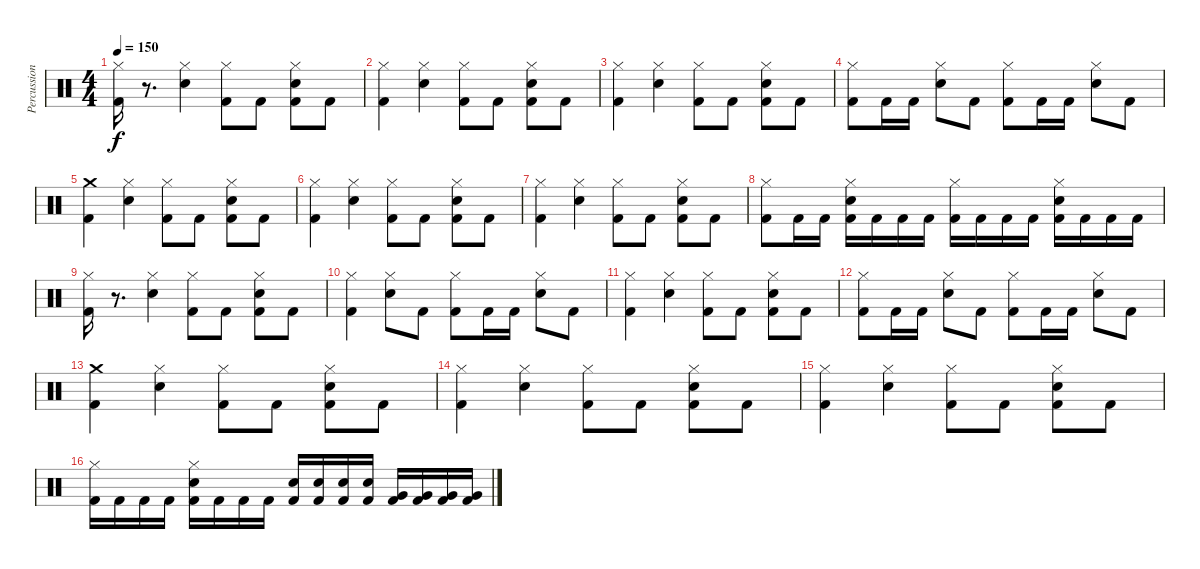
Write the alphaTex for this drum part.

\track ("Percussion" "Percussion") {instrument percussion}
\staff {score}
\articulation defaults
\ts (4 4)
\tempo 150
\clef neutral
\ks c
("Hi-Hat (closed)" "Kick (hit) 2").16{dy f} r.8{d} ("Electric Snare (hit)" "Hi-Hat (closed)").4 ("Hi-Hat (closed)" "Kick (hit) 2").8 "Kick (hit) 2".8 ("Electric Snare (hit)" "Hi-Hat (closed)" "Kick (hit) 2").8 "Kick (hit) 2".8 |
("Hi-Hat (closed)" "Kick (hit) 2").4 ("Electric Snare (hit)" "Hi-Hat (closed)").4 ("Hi-Hat (closed)" "Kick (hit) 2").8 "Kick (hit) 2".8 ("Electric Snare (hit)" "Hi-Hat (closed)" "Kick (hit) 2").8 "Kick (hit) 2".8 |
("Hi-Hat (closed)" "Kick (hit) 2").4 ("Electric Snare (hit)" "Hi-Hat (closed)").4 ("Hi-Hat (closed)" "Kick (hit) 2").8 "Kick (hit) 2".8 ("Electric Snare (hit)" "Hi-Hat (closed)" "Kick (hit) 2").8 "Kick (hit) 2".8 |
("Hi-Hat (closed)" "Kick (hit) 2").8 "Kick (hit) 2".16 "Kick (hit) 2".16 ("Electric Snare (hit)" "Hi-Hat (closed)").8 "Kick (hit) 2".8 ("Hi-Hat (closed)" "Kick (hit) 2").8 "Kick (hit) 2".16 "Kick (hit) 2".16 ("Electric Snare (hit)" "Hi-Hat (closed)").8 "Kick (hit) 2".8 |
("Crash medium (hit)" "Kick (hit) 2").4 ("Electric Snare (hit)" "Hi-Hat (closed)").4 ("Hi-Hat (closed)" "Kick (hit) 2").8 "Kick (hit) 2".8 ("Electric Snare (hit)" "Hi-Hat (closed)" "Kick (hit) 2").8 "Kick (hit) 2".8 |
("Hi-Hat (closed)" "Kick (hit) 2").4 ("Electric Snare (hit)" "Hi-Hat (closed)").4 ("Hi-Hat (closed)" "Kick (hit) 2").8 "Kick (hit) 2".8 ("Electric Snare (hit)" "Hi-Hat (closed)" "Kick (hit) 2").8 "Kick (hit) 2".8 |
("Hi-Hat (closed)" "Kick (hit) 2").4 ("Electric Snare (hit)" "Hi-Hat (closed)").4 ("Hi-Hat (closed)" "Kick (hit) 2").8 "Kick (hit) 2".8 ("Electric Snare (hit)" "Hi-Hat (closed)" "Kick (hit) 2").8 "Kick (hit) 2".8 |
("Hi-Hat (closed)" "Kick (hit) 2").8 "Kick (hit) 2".16 "Kick (hit) 2".16 ("Electric Snare (hit)" "Hi-Hat (closed)" "Kick (hit) 2").16 "Kick (hit) 2".16 "Kick (hit) 2".16 "Kick (hit) 2".16 ("Hi-Hat (closed)" "Kick (hit) 2").16 "Kick (hit) 2".16 "Kick (hit) 2".16 "Kick (hit) 2".16 ("Electric Snare (hit)" "Hi-Hat (closed)" "Kick (hit) 2").16 "Kick (hit) 2".16 "Kick (hit) 2".16 "Kick (hit) 2".16 |
("Hi-Hat (closed)" "Kick (hit) 2").16 r.8{d} ("Electric Snare (hit)" "Hi-Hat (closed)").4 ("Hi-Hat (closed)" "Kick (hit) 2").8 "Kick (hit) 2".8 ("Electric Snare (hit)" "Hi-Hat (closed)" "Kick (hit) 2").8 "Kick (hit) 2".8 |
("Hi-Hat (closed)" "Kick (hit) 2").4 ("Electric Snare (hit)" "Hi-Hat (closed)").8 "Kick (hit) 2".8 ("Hi-Hat (closed)" "Kick (hit) 2").8 "Kick (hit) 2".16 "Kick (hit) 2".16 ("Electric Snare (hit)" "Hi-Hat (closed)").8 "Kick (hit) 2".8 |
("Hi-Hat (closed)" "Kick (hit) 2").4 ("Electric Snare (hit)" "Hi-Hat (closed)").4 ("Hi-Hat (closed)" "Kick (hit) 2").8 "Kick (hit) 2".8 ("Electric Snare (hit)" "Hi-Hat (closed)" "Kick (hit) 2").8 "Kick (hit) 2".8 |
("Hi-Hat (closed)" "Kick (hit) 2").8 "Kick (hit) 2".16 "Kick (hit) 2".16 ("Electric Snare (hit)" "Hi-Hat (closed)").8 "Kick (hit) 2".8 ("Hi-Hat (closed)" "Kick (hit) 2").8 "Kick (hit) 2".16 "Kick (hit) 2".16 ("Electric Snare (hit)" "Hi-Hat (closed)").8 "Kick (hit) 2".8 |
("Crash medium (hit)" "Kick (hit) 2").4 ("Electric Snare (hit)" "Hi-Hat (closed)").4 ("Hi-Hat (closed)" "Kick (hit) 2").8 "Kick (hit) 2".8 ("Electric Snare (hit)" "Hi-Hat (closed)" "Kick (hit) 2").8 "Kick (hit) 2".8 |
("Hi-Hat (closed)" "Kick (hit) 2").4 ("Electric Snare (hit)" "Hi-Hat (closed)").4 ("Hi-Hat (closed)" "Kick (hit) 2").8 "Kick (hit) 2".8 ("Electric Snare (hit)" "Hi-Hat (closed)" "Kick (hit) 2").8 "Kick (hit) 2".8 |
("Hi-Hat (closed)" "Kick (hit) 2").4 ("Electric Snare (hit)" "Hi-Hat (closed)").4 ("Hi-Hat (closed)" "Kick (hit) 2").8 "Kick (hit) 2".8 ("Electric Snare (hit)" "Hi-Hat (closed)" "Kick (hit) 2").8 "Kick (hit) 2".8 |
("Hi-Hat (closed)" "Kick (hit) 2").16 "Kick (hit) 2".16 "Kick (hit) 2".16 "Kick (hit) 2".16 ("Electric Snare (hit)" "Hi-Hat (closed)" "Kick (hit) 2").16 "Kick (hit) 2".16 "Kick (hit) 2".16 "Kick (hit) 2".16 ("Electric Snare (hit)" "Kick (hit) 2").16 ("Electric Snare (hit)" "Kick (hit) 2").16 ("Electric Snare (hit)" "Kick (hit) 2").16 ("Electric Snare (hit)" "Kick (hit) 2").16 ("Very Low Tom (hit)" "Kick (hit) 2").16 ("Very Low Tom (hit)" "Kick (hit) 2").16 ("Very Low Tom (hit)" "Kick (hit) 2").16 ("Very Low Tom (hit)" "Kick (hit) 2").16
